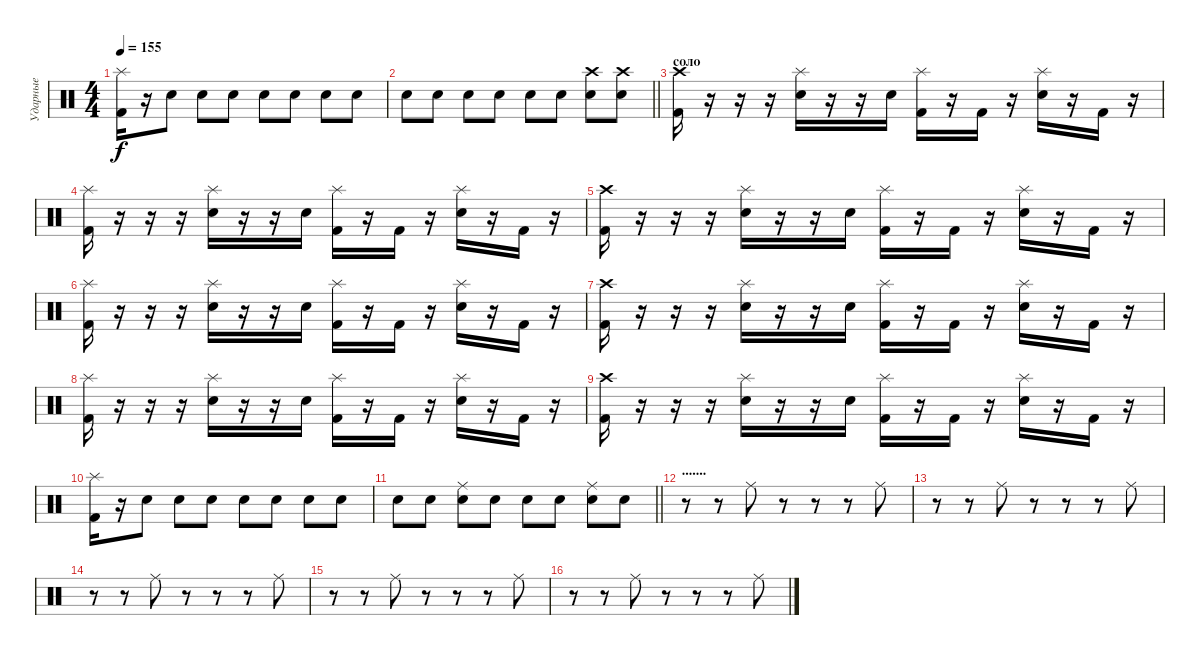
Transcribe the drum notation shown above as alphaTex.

\track ("Ударные" "Ударные") {instrument percussion}
\staff {score}
\articulation defaults
\ts (4 4)
\tempo 155
\clef neutral
\ks c
("Splash (hit)" "Kick (hit) 2").16{dy f} r.16 "Electric Snare (hit)".8 "Electric Snare (hit)".8 "Electric Snare (hit)".8 "Electric Snare (hit)".8 "Electric Snare (hit)".8 "Electric Snare (hit)".8 "Electric Snare (hit)".8 |
\barLineRight lightlight "Electric Snare (hit)".8 "Electric Snare (hit)".8 "Electric Snare (hit)".8 "Electric Snare (hit)".8 "Electric Snare (hit)".8 "Electric Snare (hit)".8
("Electric Snare (hit)" "Crash high (hit)").8 ("Electric Snare (hit)" "Crash high (hit)").8 |
\section ("" "соло")
("Crash high (hit)" "Kick (hit) 2").16 r.16 r.16 r.16 ("Splash (hit)" "Electric Snare (hit)").16 r.16 r.16 "Electric Snare (hit)".16 ("Splash (hit)" "Kick (hit) 2").16 r.16 "Kick (hit) 2".16 r.16 ("Splash (hit)" "Electric Snare (hit)").16 r.16 "Kick (hit) 2".16 r.16 |
("Splash (hit)" "Kick (hit) 2").16 r.16 r.16 r.16 ("Splash (hit)" "Electric Snare (hit)").16 r.16 r.16 "Electric Snare (hit)".16 ("Splash (hit)" "Kick (hit) 2").16 r.16 "Kick (hit) 2".16 r.16 ("Splash (hit)" "Electric Snare (hit)").16 r.16 "Kick (hit) 2".16 r.16 |
("Crash high (hit)" "Kick (hit) 2").16 r.16 r.16 r.16 ("Splash (hit)" "Electric Snare (hit)").16 r.16 r.16 "Electric Snare (hit)".16 ("Splash (hit)" "Kick (hit) 2").16 r.16 "Kick (hit) 2".16 r.16 ("Splash (hit)" "Electric Snare (hit)").16 r.16 "Kick (hit) 2".16 r.16 |
("Splash (hit)" "Kick (hit) 2").16 r.16 r.16 r.16 ("Splash (hit)" "Electric Snare (hit)").16 r.16 r.16 "Electric Snare (hit)".16 ("Splash (hit)" "Kick (hit) 2").16 r.16 "Kick (hit) 2".16 r.16 ("Splash (hit)" "Electric Snare (hit)").16 r.16 "Kick (hit) 2".16 r.16 |
("Crash high (hit)" "Kick (hit) 2").16 r.16 r.16 r.16 ("Splash (hit)" "Electric Snare (hit)").16 r.16 r.16 "Electric Snare (hit)".16 ("Splash (hit)" "Kick (hit) 2").16 r.16 "Kick (hit) 2".16 r.16 ("Splash (hit)" "Electric Snare (hit)").16 r.16 "Kick (hit) 2".16 r.16 |
("Splash (hit)" "Kick (hit) 2").16 r.16 r.16 r.16 ("Splash (hit)" "Electric Snare (hit)").16 r.16 r.16 "Electric Snare (hit)".16 ("Splash (hit)" "Kick (hit) 2").16 r.16 "Kick (hit) 2".16 r.16 ("Splash (hit)" "Electric Snare (hit)").16 r.16 "Kick (hit) 2".16 r.16 |
("Crash high (hit)" "Kick (hit) 2").16 r.16 r.16 r.16 ("Splash (hit)" "Electric Snare (hit)").16 r.16 r.16 "Electric Snare (hit)".16 ("Splash (hit)" "Kick (hit) 2").16 r.16 "Kick (hit) 2".16 r.16 ("Splash (hit)" "Electric Snare (hit)").16 r.16 "Kick (hit) 2".16 r.16 |
("Splash (hit)" "Kick (hit) 2").16 r.16 "Electric Snare (hit)".8 "Electric Snare (hit)".8 "Electric Snare (hit)".8 "Electric Snare (hit)".8 "Electric Snare (hit)".8 "Electric Snare (hit)".8 "Electric Snare (hit)".8 |
\barLineRight lightlight "Electric Snare (hit)".8 "Electric Snare (hit)".8
("Electric Snare (hit)" "Ride (middle)").8 "Electric Snare (hit)".8 "Electric Snare (hit)".8 "Electric Snare (hit)".8 ("Electric Snare (hit)" "Ride (middle)").8 "Electric Snare (hit)".8 |
\section ("" ".......")
r.8 r.8 "Ride (middle)".8 r.8 r.8 r.8 "Ride (middle)".8 |
r.8 r.8 "Ride (middle)".8 r.8 r.8 r.8 "Ride (middle)".8 |
r.8 r.8 "Ride (middle)".8 r.8 r.8 r.8 "Ride (middle)".8 |
r.8 r.8 "Ride (middle)".8 r.8 r.8 r.8 "Ride (middle)".8 |
r.8 r.8 "Ride (middle)".8 r.8 r.8 r.8 "Ride (middle)".8
